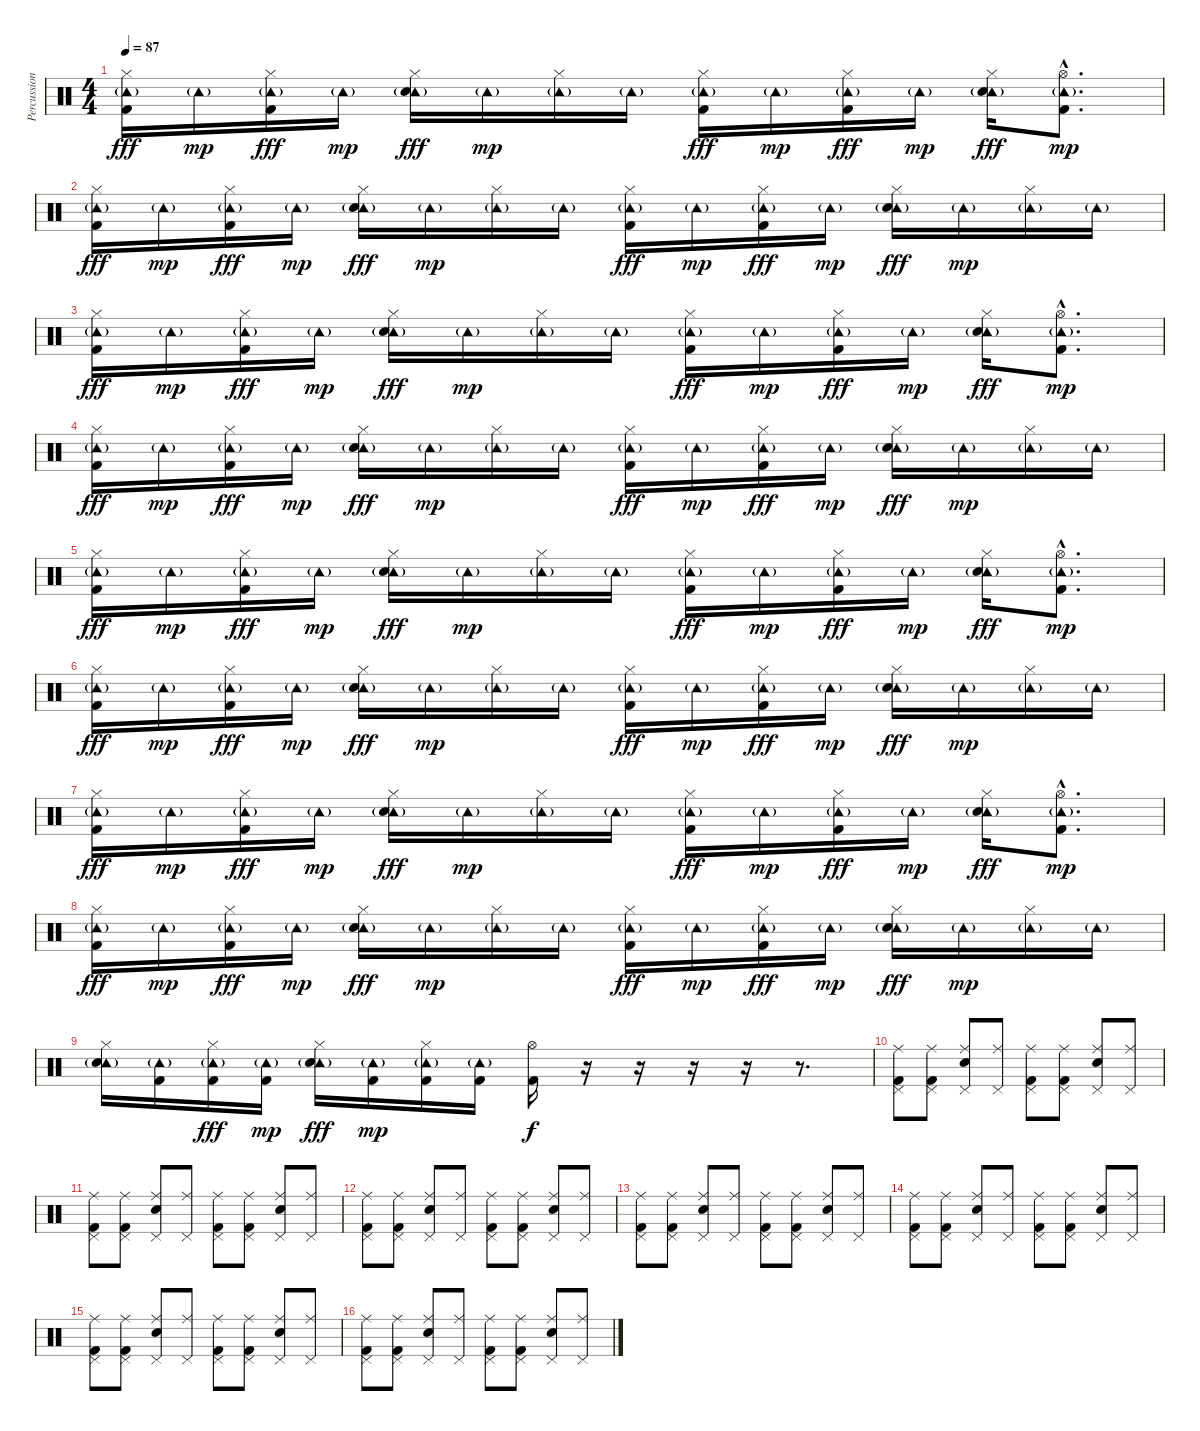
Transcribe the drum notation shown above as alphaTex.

\track ("Percussion" "Percussion") {instrument percussion}
\staff {score}
\articulation defaults
\ts (4 4)
\tempo 87
\clef neutral
\ks c
("Hi-Hat (closed)" "Tambourine (hit)"{g} "Kick (hit) 2").16{dy fff} "Tambourine (hit)"{g}.16{dy mp} ("Hi-Hat (closed)" "Tambourine (hit)"{g} "Kick (hit) 2").16{dy fff} "Tambourine (hit)"{g}.16{dy mp} ("Hi-Hat (closed)" "Tambourine (hit)"{g} "Electric Snare (hit)").16{dy fff} "Tambourine (hit)"{g}.16{dy mp} ("Hi-Hat (closed)" "Tambourine (hit)"{g}).16 "Tambourine (hit)"{g}.16 ("Hi-Hat (closed)" "Tambourine (hit)"{g} "Kick (hit) 2").16{dy fff} "Tambourine (hit)"{g}.16{dy mp} ("Hi-Hat (closed)" "Tambourine (hit)"{g} "Kick (hit) 2").16{dy fff} "Tambourine (hit)"{g}.16{dy mp} ("Hi-Hat (closed)" "Tambourine (hit)"{g} "Electric Snare (hit)").16{dy fff} ("Hi-Hat (open)"{hac} "Tambourine (hit)"{g hac} "Kick (hit) 2"{hac}).8{d dy mp} |
("Hi-Hat (closed)" "Tambourine (hit)"{g} "Kick (hit) 2").16{dy fff} "Tambourine (hit)"{g}.16{dy mp} ("Hi-Hat (closed)" "Tambourine (hit)"{g} "Kick (hit) 2").16{dy fff} "Tambourine (hit)"{g}.16{dy mp} ("Hi-Hat (closed)" "Tambourine (hit)"{g} "Electric Snare (hit)").16{dy fff} "Tambourine (hit)"{g}.16{dy mp} ("Hi-Hat (closed)" "Tambourine (hit)"{g}).16 "Tambourine (hit)"{g}.16 ("Hi-Hat (closed)" "Tambourine (hit)"{g} "Kick (hit) 2").16{dy fff} "Tambourine (hit)"{g}.16{dy mp} ("Hi-Hat (closed)" "Tambourine (hit)"{g} "Kick (hit) 2").16{dy fff} "Tambourine (hit)"{g}.16{dy mp} ("Hi-Hat (closed)" "Tambourine (hit)"{g} "Electric Snare (hit)").16{dy fff} "Tambourine (hit)"{g}.16{dy mp} ("Hi-Hat (closed)" "Tambourine (hit)"{g}).16 "Tambourine (hit)"{g}.16 |
("Hi-Hat (closed)" "Tambourine (hit)"{g} "Kick (hit) 2").16{dy fff} "Tambourine (hit)"{g}.16{dy mp} ("Hi-Hat (closed)" "Tambourine (hit)"{g} "Kick (hit) 2").16{dy fff} "Tambourine (hit)"{g}.16{dy mp} ("Hi-Hat (closed)" "Tambourine (hit)"{g} "Electric Snare (hit)").16{dy fff} "Tambourine (hit)"{g}.16{dy mp} ("Hi-Hat (closed)" "Tambourine (hit)"{g}).16 "Tambourine (hit)"{g}.16 ("Hi-Hat (closed)" "Tambourine (hit)"{g} "Kick (hit) 2").16{dy fff} "Tambourine (hit)"{g}.16{dy mp} ("Hi-Hat (closed)" "Tambourine (hit)"{g} "Kick (hit) 2").16{dy fff} "Tambourine (hit)"{g}.16{dy mp} ("Hi-Hat (closed)" "Tambourine (hit)"{g} "Electric Snare (hit)").16{dy fff} ("Hi-Hat (open)"{hac} "Tambourine (hit)"{g hac} "Kick (hit) 2"{hac}).8{d dy mp} |
("Hi-Hat (closed)" "Tambourine (hit)"{g} "Kick (hit) 2").16{dy fff} "Tambourine (hit)"{g}.16{dy mp} ("Hi-Hat (closed)" "Tambourine (hit)"{g} "Kick (hit) 2").16{dy fff} "Tambourine (hit)"{g}.16{dy mp} ("Hi-Hat (closed)" "Tambourine (hit)"{g} "Electric Snare (hit)").16{dy fff} "Tambourine (hit)"{g}.16{dy mp} ("Hi-Hat (closed)" "Tambourine (hit)"{g}).16 "Tambourine (hit)"{g}.16 ("Hi-Hat (closed)" "Tambourine (hit)"{g} "Kick (hit) 2").16{dy fff} "Tambourine (hit)"{g}.16{dy mp} ("Hi-Hat (closed)" "Tambourine (hit)"{g} "Kick (hit) 2").16{dy fff} "Tambourine (hit)"{g}.16{dy mp} ("Hi-Hat (closed)" "Tambourine (hit)"{g} "Electric Snare (hit)").16{dy fff} "Tambourine (hit)"{g}.16{dy mp} ("Hi-Hat (closed)" "Tambourine (hit)"{g}).16 "Tambourine (hit)"{g}.16 |
("Hi-Hat (closed)" "Tambourine (hit)"{g} "Kick (hit) 2").16{dy fff} "Tambourine (hit)"{g}.16{dy mp} ("Hi-Hat (closed)" "Tambourine (hit)"{g} "Kick (hit) 2").16{dy fff} "Tambourine (hit)"{g}.16{dy mp} ("Hi-Hat (closed)" "Tambourine (hit)"{g} "Electric Snare (hit)").16{dy fff} "Tambourine (hit)"{g}.16{dy mp} ("Hi-Hat (closed)" "Tambourine (hit)"{g}).16 "Tambourine (hit)"{g}.16 ("Hi-Hat (closed)" "Tambourine (hit)"{g} "Kick (hit) 2").16{dy fff} "Tambourine (hit)"{g}.16{dy mp} ("Hi-Hat (closed)" "Tambourine (hit)"{g} "Kick (hit) 2").16{dy fff} "Tambourine (hit)"{g}.16{dy mp} ("Hi-Hat (closed)" "Tambourine (hit)"{g} "Electric Snare (hit)").16{dy fff} ("Hi-Hat (open)"{hac} "Tambourine (hit)"{g hac} "Kick (hit) 2"{hac}).8{d dy mp} |
("Hi-Hat (closed)" "Tambourine (hit)"{g} "Kick (hit) 2").16{dy fff} "Tambourine (hit)"{g}.16{dy mp} ("Hi-Hat (closed)" "Tambourine (hit)"{g} "Kick (hit) 2").16{dy fff} "Tambourine (hit)"{g}.16{dy mp} ("Hi-Hat (closed)" "Tambourine (hit)"{g} "Electric Snare (hit)").16{dy fff} "Tambourine (hit)"{g}.16{dy mp} ("Hi-Hat (closed)" "Tambourine (hit)"{g}).16 "Tambourine (hit)"{g}.16 ("Hi-Hat (closed)" "Tambourine (hit)"{g} "Kick (hit) 2").16{dy fff} "Tambourine (hit)"{g}.16{dy mp} ("Hi-Hat (closed)" "Tambourine (hit)"{g} "Kick (hit) 2").16{dy fff} "Tambourine (hit)"{g}.16{dy mp} ("Hi-Hat (closed)" "Tambourine (hit)"{g} "Electric Snare (hit)").16{dy fff} "Tambourine (hit)"{g}.16{dy mp} ("Hi-Hat (closed)" "Tambourine (hit)"{g}).16 "Tambourine (hit)"{g}.16 |
("Hi-Hat (closed)" "Tambourine (hit)"{g} "Kick (hit) 2").16{dy fff} "Tambourine (hit)"{g}.16{dy mp} ("Hi-Hat (closed)" "Tambourine (hit)"{g} "Kick (hit) 2").16{dy fff} "Tambourine (hit)"{g}.16{dy mp} ("Hi-Hat (closed)" "Tambourine (hit)"{g} "Electric Snare (hit)").16{dy fff} "Tambourine (hit)"{g}.16{dy mp} ("Hi-Hat (closed)" "Tambourine (hit)"{g}).16 "Tambourine (hit)"{g}.16 ("Hi-Hat (closed)" "Tambourine (hit)"{g} "Kick (hit) 2").16{dy fff} "Tambourine (hit)"{g}.16{dy mp} ("Hi-Hat (closed)" "Tambourine (hit)"{g} "Kick (hit) 2").16{dy fff} "Tambourine (hit)"{g}.16{dy mp} ("Hi-Hat (closed)" "Tambourine (hit)"{g} "Electric Snare (hit)").16{dy fff} ("Hi-Hat (open)"{hac} "Tambourine (hit)"{g hac} "Kick (hit) 2"{hac}).8{d dy mp} |
("Hi-Hat (closed)" "Tambourine (hit)"{g} "Kick (hit) 2").16{dy fff} "Tambourine (hit)"{g}.16{dy mp} ("Hi-Hat (closed)" "Tambourine (hit)"{g} "Kick (hit) 2").16{dy fff} "Tambourine (hit)"{g}.16{dy mp} ("Hi-Hat (closed)" "Tambourine (hit)"{g} "Electric Snare (hit)").16{dy fff} "Tambourine (hit)"{g}.16{dy mp} ("Hi-Hat (closed)" "Tambourine (hit)"{g}).16 "Tambourine (hit)"{g}.16 ("Hi-Hat (closed)" "Tambourine (hit)"{g} "Kick (hit) 2").16{dy fff} "Tambourine (hit)"{g}.16{dy mp} ("Hi-Hat (closed)" "Tambourine (hit)"{g} "Kick (hit) 2").16{dy fff} "Tambourine (hit)"{g}.16{dy mp} ("Hi-Hat (closed)" "Tambourine (hit)"{g} "Electric Snare (hit)").16{dy fff} "Tambourine (hit)"{g}.16{dy mp} ("Hi-Hat (closed)" "Tambourine (hit)"{g}).16 "Tambourine (hit)"{g}.16 |
("Hi-Hat (closed)" "Tambourine (hit)"{g} "Electric Snare (hit)").16 ("Tambourine (hit)"{g} "Kick (hit) 2").16 ("Hi-Hat (closed)" "Tambourine (hit)"{g} "Kick (hit) 2").16{dy fff} ("Tambourine (hit)"{g} "Kick (hit) 2").16{dy mp} ("Hi-Hat (closed)" "Tambourine (hit)"{g} "Electric Snare (hit)").16{dy fff} ("Tambourine (hit)"{g} "Kick (hit) 2").16{dy mp} ("Hi-Hat (closed)" "Tambourine (hit)"{g} "Kick (hit) 2").16 ("Tambourine (hit)"{g} "Kick (hit) 2").16 ("Hi-Hat (open)" "Kick (hit) 2").16{dy f} r.16 r.16 r.16 r.16 r.8{d} |
("Pedal Hi-Hat (hit)" "Ride (middle)" "Kick (hit) 2").8 ("Pedal Hi-Hat (hit)" "Ride (middle)" "Kick (hit) 2").8 ("Pedal Hi-Hat (hit)" "Ride (middle)" "Electric Snare (hit)").8 ("Pedal Hi-Hat (hit)" "Ride (middle)").8 ("Pedal Hi-Hat (hit)" "Ride (middle)" "Kick (hit) 2").8 ("Pedal Hi-Hat (hit)" "Ride (middle)" "Kick (hit) 2").8 ("Pedal Hi-Hat (hit)" "Ride (middle)" "Electric Snare (hit)").8 ("Pedal Hi-Hat (hit)" "Ride (middle)").8 |
("Pedal Hi-Hat (hit)" "Ride (middle)" "Kick (hit) 2").8 ("Pedal Hi-Hat (hit)" "Ride (middle)" "Kick (hit) 2").8 ("Pedal Hi-Hat (hit)" "Ride (middle)" "Electric Snare (hit)").8 ("Pedal Hi-Hat (hit)" "Ride (middle)").8 ("Pedal Hi-Hat (hit)" "Ride (middle)" "Kick (hit) 2").8 ("Pedal Hi-Hat (hit)" "Ride (middle)" "Kick (hit) 2").8 ("Pedal Hi-Hat (hit)" "Ride (middle)" "Electric Snare (hit)").8 ("Pedal Hi-Hat (hit)" "Ride (middle)").8 |
("Pedal Hi-Hat (hit)" "Ride (middle)" "Kick (hit) 2").8 ("Pedal Hi-Hat (hit)" "Ride (middle)" "Kick (hit) 2").8 ("Pedal Hi-Hat (hit)" "Ride (middle)" "Electric Snare (hit)").8 ("Pedal Hi-Hat (hit)" "Ride (middle)").8 ("Pedal Hi-Hat (hit)" "Ride (middle)" "Kick (hit) 2").8 ("Pedal Hi-Hat (hit)" "Ride (middle)" "Kick (hit) 2").8 ("Pedal Hi-Hat (hit)" "Ride (middle)" "Electric Snare (hit)").8 ("Pedal Hi-Hat (hit)" "Ride (middle)").8 |
("Pedal Hi-Hat (hit)" "Ride (middle)" "Kick (hit) 2").8 ("Pedal Hi-Hat (hit)" "Ride (middle)" "Kick (hit) 2").8 ("Pedal Hi-Hat (hit)" "Ride (middle)" "Electric Snare (hit)").8 ("Pedal Hi-Hat (hit)" "Ride (middle)").8 ("Pedal Hi-Hat (hit)" "Ride (middle)" "Kick (hit) 2").8 ("Pedal Hi-Hat (hit)" "Ride (middle)" "Kick (hit) 2").8 ("Pedal Hi-Hat (hit)" "Ride (middle)" "Electric Snare (hit)").8 ("Pedal Hi-Hat (hit)" "Ride (middle)").8 |
("Pedal Hi-Hat (hit)" "Ride (middle)" "Kick (hit) 2").8 ("Pedal Hi-Hat (hit)" "Ride (middle)" "Kick (hit) 2").8 ("Pedal Hi-Hat (hit)" "Ride (middle)" "Electric Snare (hit)").8 ("Pedal Hi-Hat (hit)" "Ride (middle)").8 ("Pedal Hi-Hat (hit)" "Ride (middle)" "Kick (hit) 2").8 ("Pedal Hi-Hat (hit)" "Ride (middle)" "Kick (hit) 2").8 ("Pedal Hi-Hat (hit)" "Ride (middle)" "Electric Snare (hit)").8 ("Pedal Hi-Hat (hit)" "Ride (middle)").8 |
("Pedal Hi-Hat (hit)" "Ride (middle)" "Kick (hit) 2").8 ("Pedal Hi-Hat (hit)" "Ride (middle)" "Kick (hit) 2").8 ("Pedal Hi-Hat (hit)" "Ride (middle)" "Electric Snare (hit)").8 ("Pedal Hi-Hat (hit)" "Ride (middle)").8 ("Pedal Hi-Hat (hit)" "Ride (middle)" "Kick (hit) 2").8 ("Pedal Hi-Hat (hit)" "Ride (middle)" "Kick (hit) 2").8 ("Pedal Hi-Hat (hit)" "Ride (middle)" "Electric Snare (hit)").8 ("Pedal Hi-Hat (hit)" "Ride (middle)").8 |
("Pedal Hi-Hat (hit)" "Ride (middle)" "Kick (hit) 2").8 ("Pedal Hi-Hat (hit)" "Ride (middle)" "Kick (hit) 2").8 ("Pedal Hi-Hat (hit)" "Ride (middle)" "Electric Snare (hit)").8 ("Pedal Hi-Hat (hit)" "Ride (middle)").8 ("Pedal Hi-Hat (hit)" "Ride (middle)" "Kick (hit) 2").8 ("Pedal Hi-Hat (hit)" "Ride (middle)" "Kick (hit) 2").8 ("Pedal Hi-Hat (hit)" "Ride (middle)" "Electric Snare (hit)").8 ("Pedal Hi-Hat (hit)" "Ride (middle)").8
